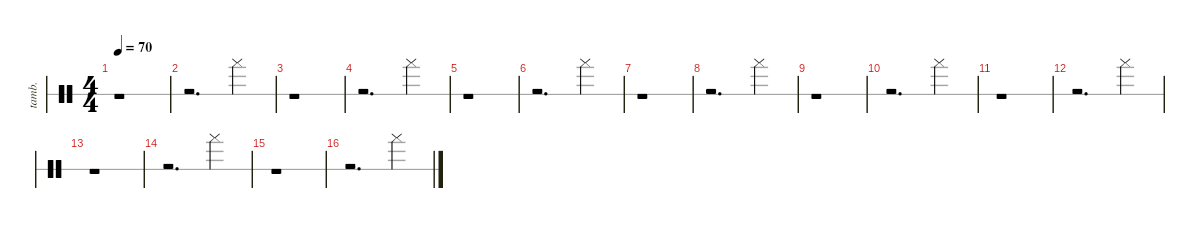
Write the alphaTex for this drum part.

\defaultSystemsLayout 4
\hideDynamics
\bracketExtendMode nobrackets
\otherSystemsTrackNameOrientation horizontal
\track ("Tambourine" "tamb.") {defaultSystemsLayout 4 multiBarRest instrument percussion}
\staff {score 1}
\articulation defaults
\ts (4 4)
\tempo 70
\clef neutral
\ks c
r.1{dy ff} |
r.2{d} "Tambourine (hand)".4 |
r.1 |
r.2{d} "Tambourine (hand)".4 |
r.1 |
r.2{d} "Tambourine (hand)".4 |
r.1 |
r.2{d} "Tambourine (hand)".4 |
r.1 |
r.2{d} "Tambourine (hand)".4 |
r.1 |
r.2{d} "Tambourine (hand)".4 |
r.1 |
r.2{d} "Tambourine (hand)".4 |
r.1 |
r.2{d} "Tambourine (hand)".4
